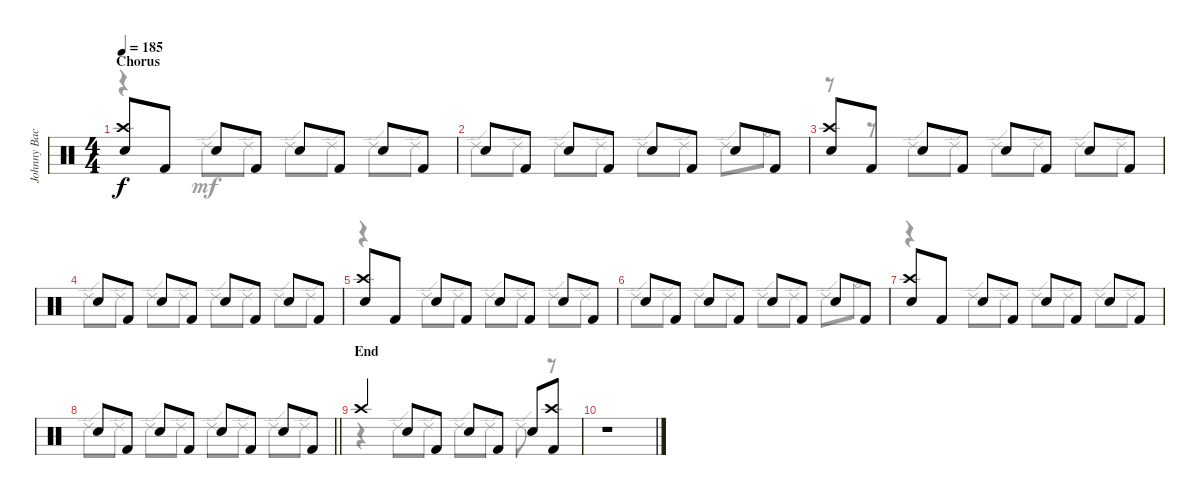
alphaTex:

\track ("Johnny Backbeat" "Johnny Bac") {instrument percussion}
\staff {score}
\articulation defaults
\voice
\ts (4 4)
\section ("" "Chorus")
\tempo 185
\clef neutral
\ks c
("Crash high (hit)" "Electric Snare (hit)").8{dy f} "Kick (hit) 2".8 "Electric Snare (hit)".8 "Kick (hit) 2".8 "Electric Snare (hit)".8 "Kick (hit) 2".8 "Electric Snare (hit)".8 "Kick (hit) 2".8 |
"Electric Snare (hit)".8 "Kick (hit) 2".8 "Electric Snare (hit)".8 "Kick (hit) 2".8 "Electric Snare (hit)".8 "Kick (hit) 2".8 "Electric Snare (hit)".8 "Kick (hit) 2".8 |
("Crash high (hit)" "Electric Snare (hit)").8 "Kick (hit) 2".8 "Electric Snare (hit)".8 "Kick (hit) 2".8 "Electric Snare (hit)".8 "Kick (hit) 2".8 "Electric Snare (hit)".8 "Kick (hit) 2".8 |
"Electric Snare (hit)".8 "Kick (hit) 2".8 "Electric Snare (hit)".8 "Kick (hit) 2".8 "Electric Snare (hit)".8 "Kick (hit) 2".8 "Electric Snare (hit)".8 "Kick (hit) 2".8 |
("Crash high (hit)" "Electric Snare (hit)").8 "Kick (hit) 2".8 "Electric Snare (hit)".8 "Kick (hit) 2".8 "Electric Snare (hit)".8 "Kick (hit) 2".8 "Electric Snare (hit)".8 "Kick (hit) 2".8 |
"Electric Snare (hit)".8 "Kick (hit) 2".8 "Electric Snare (hit)".8 "Kick (hit) 2".8 "Electric Snare (hit)".8 "Kick (hit) 2".8 "Electric Snare (hit)".8 "Kick (hit) 2".8 |
("Crash high (hit)" "Electric Snare (hit)").8 "Kick (hit) 2".8 "Electric Snare (hit)".8 "Kick (hit) 2".8 "Electric Snare (hit)".8 "Kick (hit) 2".8 "Electric Snare (hit)".8 "Kick (hit) 2".8 |
\barLineRight lightlight "Electric Snare (hit)".8 "Kick (hit) 2".8 "Electric Snare (hit)".8 "Kick (hit) 2".8 "Electric Snare (hit)".8 "Kick (hit) 2".8 "Electric Snare (hit)".8 "Kick (hit) 2".8
|
\section ("" "End")
"Crash high (hit)".4 "Electric Snare (hit)".8 "Kick (hit) 2".8 "Electric Snare (hit)".8 "Kick (hit) 2".8 "Electric Snare (hit)".8 ("Crash high (hit)" "Kick (hit) 2").8 |
r.1
\voice
\clef neutral
\ottava regular
\simile none
\ks c
r.4{dy f} "Ride (edge) 2".8{dy mf} "Ride (edge) 2".8 "Ride (edge) 2".8 "Ride (edge) 2".8 "Ride (edge) 2".8 "Ride (edge) 2".8 |
"Ride (edge) 2".8 "Ride (edge) 2".8 "Ride (edge) 2".8 "Ride (edge) 2".8 "Ride (edge) 2".8 "Ride (edge) 2".8 "Ride (edge) 2".8 "Hi-Hat (open)".8 |
r.8 r.8 "Ride (edge) 2".8 "Ride (edge) 2".8 "Ride (edge) 2".8 "Ride (edge) 2".8 "Ride (edge) 2".8 "Ride (edge) 2".8 |
"Ride (edge) 2".8 "Ride (edge) 2".8 "Ride (edge) 2".8 "Ride (edge) 2".8 "Ride (edge) 2".8 "Ride (edge) 2".8 "Ride (edge) 2".8 "Ride (edge) 2".8 |
r.4 "Ride (edge) 2".8 "Ride (edge) 2".8 "Ride (edge) 2".8 "Ride (edge) 2".8 "Ride (edge) 2".8 "Ride (edge) 2".8 |
"Ride (edge) 2".8 "Ride (edge) 2".8 "Ride (edge) 2".8 "Ride (edge) 2".8 "Ride (edge) 2".8 "Ride (edge) 2".8 "Ride (edge) 2".8 "Hi-Hat (open)".8 |
r.4 "Ride (edge) 2".8 "Ride (edge) 2".8 "Ride (edge) 2".8 "Ride (edge) 2".8 "Ride (edge) 2".8 "Ride (edge) 2".8 |
\barLineRight lightlight "Ride (edge) 2".8 "Ride (edge) 2".8 "Ride (edge) 2".8 "Ride (edge) 2".8 "Ride (edge) 2".8 "Ride (edge) 2".8 "Ride (edge) 2".8 "Ride (edge) 2".8
|
r.4 "Ride (edge) 2".8 "Ride (edge) 2".8 "Ride (edge) 2".8 "Ride (edge) 2".8 "Ride (edge) 2".8 r.8 |
